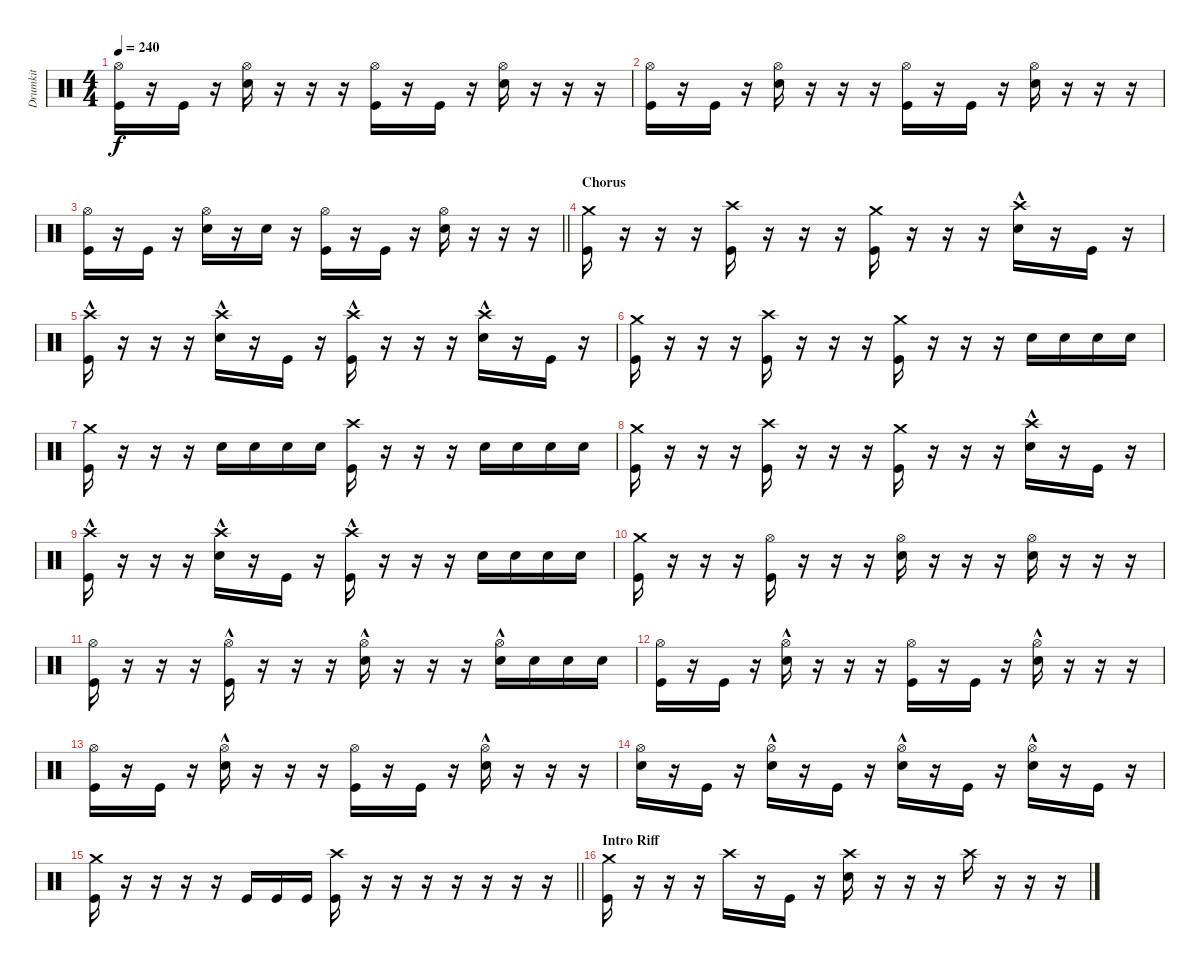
\track ("Drumkit" "Drumkit") {instrument percussion}
\staff {score}
\articulation defaults
\ts (4 4)
\tempo 240
\clef neutral
\ks c
("Hi-Hat (open)" "Kick (hit)").16{dy f} r.16 "Kick (hit)".16 r.16 ("Hi-Hat (open)" "Snare (hit) 2").16 r.16 r.16 r.16 ("Hi-Hat (open)" "Kick (hit)").16 r.16 "Kick (hit)".16 r.16 ("Hi-Hat (open)" "Snare (hit) 2").16 r.16 r.16 r.16 |
("Hi-Hat (open)" "Kick (hit)").16 r.16 "Kick (hit)".16 r.16 ("Hi-Hat (open)" "Snare (hit) 2").16 r.16 r.16 r.16 ("Hi-Hat (open)" "Kick (hit)").16 r.16 "Kick (hit)".16 r.16 ("Hi-Hat (open)" "Snare (hit) 2").16 r.16 r.16 r.16 |
\barLineRight lightlight
("Hi-Hat (open)" "Kick (hit)").16 r.16 "Kick (hit)".16 r.16 ("Hi-Hat (open)" "Snare (hit) 2").16 r.16 "Snare (hit) 2".16 r.16 ("Hi-Hat (open)" "Kick (hit)").16 r.16 "Kick (hit)".16 r.16 ("Hi-Hat (open)" "Snare (hit) 2").16 r.16 r.16 r.16 |
\section ("" "Chorus")
("Crash medium (hit)" "Kick (hit)").16 r.16 r.16 r.16 ("Crash high (hit)" "Kick (hit)").16 r.16 r.16 r.16 ("Crash medium (hit)" "Kick (hit)").16 r.16 r.16 r.16 ("Crash high (hit)"{hac} "Snare (hit) 2").16 r.16 "Kick (hit)".16 r.16 |
("Crash high (hit)"{hac} "Kick (hit)").16 r.16 r.16 r.16 ("Crash high (hit)"{hac} "Snare (hit) 2").16 r.16 "Kick (hit)".16 r.16 ("Crash high (hit)"{hac} "Kick (hit)").16 r.16 r.16 r.16 ("Crash high (hit)"{hac} "Snare (hit) 2").16 r.16 "Kick (hit)".16 r.16 |
("Crash medium (hit)" "Kick (hit)").16 r.16 r.16 r.16 ("Crash high (hit)" "Kick (hit)").16 r.16 r.16 r.16 ("Crash medium (hit)" "Kick (hit)").16 r.16 r.16 r.16 "Snare (hit) 2".16 "Snare (hit) 2".16 "Snare (hit) 2".16 "Snare (hit) 2".16 |
("Crash medium (hit)" "Kick (hit)").16 r.16 r.16 r.16 "Snare (hit) 2".16 "Snare (hit) 2".16 "Snare (hit) 2".16 "Snare (hit) 2".16 ("Crash high (hit)" "Kick (hit)").16 r.16 r.16 r.16 "Snare (hit) 2".16 "Snare (hit) 2".16 "Snare (hit) 2".16 "Snare (hit) 2".16 |
("Crash medium (hit)" "Kick (hit)").16 r.16 r.16 r.16 ("Crash high (hit)" "Kick (hit)").16 r.16 r.16 r.16 ("Crash medium (hit)" "Kick (hit)").16 r.16 r.16 r.16 ("Crash high (hit)"{hac} "Snare (hit) 2").16 r.16 "Kick (hit)".16 r.16 |
("Crash high (hit)"{hac} "Kick (hit)").16 r.16 r.16 r.16 ("Crash high (hit)"{hac} "Snare (hit) 2").16 r.16 "Kick (hit)".16 r.16 ("Crash high (hit)"{hac} "Kick (hit)").16 r.16 r.16 r.16 "Snare (hit) 2".16 "Snare (hit) 2".16 "Snare (hit) 2".16 "Snare (hit) 2".16 |
("Crash medium (hit)" "Kick (hit)").16 r.16 r.16 r.16 ("Hi-Hat (open)" "Kick (hit)").16 r.16 r.16 r.16 ("Hi-Hat (open)" "Snare (hit) 2").16 r.16 r.16 r.16 ("Hi-Hat (open)" "Snare (hit) 2").16 r.16 r.16 r.16 |
("Hi-Hat (open)" "Kick (hit)").16 r.16 r.16 r.16 ("Hi-Hat (open)"{hac} "Kick (hit)").16 r.16 r.16 r.16 ("Hi-Hat (open)"{hac} "Snare (hit) 2").16 r.16 r.16 r.16 ("Hi-Hat (open)"{hac} "Snare (hit) 2").16 "Snare (hit) 2".16 "Snare (hit) 2".16 "Snare (hit) 2".16 |
("Hi-Hat (open)" "Kick (hit)").16 r.16 "Kick (hit)".16 r.16 ("Hi-Hat (open)"{hac} "Snare (hit) 2").16 r.16 r.16 r.16 ("Hi-Hat (open)" "Kick (hit)").16 r.16 "Kick (hit)".16 r.16 ("Hi-Hat (open)"{hac} "Snare (hit) 2").16 r.16 r.16 r.16 |
("Hi-Hat (open)" "Kick (hit)").16 r.16 "Kick (hit)".16 r.16 ("Hi-Hat (open)"{hac} "Snare (hit) 2").16 r.16 r.16 r.16 ("Hi-Hat (open)" "Kick (hit)").16 r.16 "Kick (hit)".16 r.16 ("Hi-Hat (open)"{hac} "Snare (hit) 2").16 r.16 r.16 r.16 |
("Hi-Hat (open)" "Snare (hit) 2").16 r.16 "Kick (hit)".16 r.16 ("Hi-Hat (open)"{hac} "Snare (hit) 2").16 r.16 "Kick (hit)".16 r.16 ("Hi-Hat (open)"{hac} "Snare (hit) 2").16 r.16 "Kick (hit)".16 r.16 ("Hi-Hat (open)"{hac} "Snare (hit) 2").16 r.16 "Kick (hit)".16 r.16 |
\barLineRight lightlight
("Crash medium (hit)" "Kick (hit)").16 r.16 r.16 r.16 r.16 "Kick (hit)".16 "Kick (hit)".16 "Kick (hit)".16 ("Crash high (hit)" "Kick (hit)").16 r.16 r.16 r.16 r.16 r.16 r.16 r.16 |
\section ("" "Intro Riff")
("Crash medium (hit)" "Kick (hit)").16 r.16 r.16 r.16 "Crash high (hit)".16 r.16 "Kick (hit)".16 r.16 ("Crash high (hit)" "Snare (hit) 2").16 r.16 r.16 r.16 "Crash high (hit)".16 r.16 r.16 r.16
